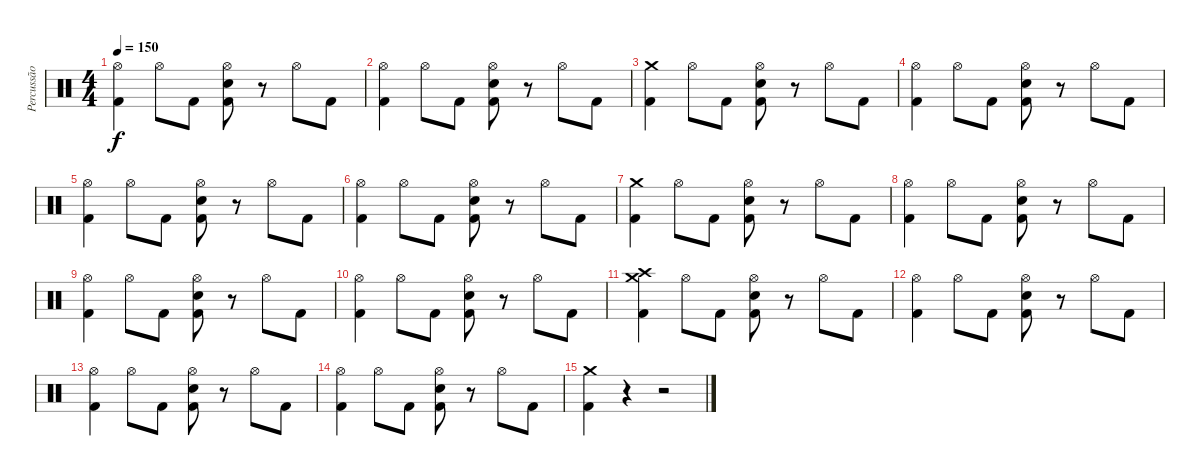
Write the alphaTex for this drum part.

\track ("Percussão" "Percussão") {instrument percussion}
\staff {score}
\articulation defaults
\ts (4 4)
\tempo 150
\clef neutral
\ks c
("Hi-Hat (open)" "Kick (hit) 2").4{dy f} "Hi-Hat (open)".8 "Kick (hit) 2".8 ("Hi-Hat (open)" "Snare (hit) 2" "Kick (hit) 2").8 r.8 "Hi-Hat (open)".8 "Kick (hit) 2".8 |
("Hi-Hat (open)" "Kick (hit) 2").4 "Hi-Hat (open)".8 "Kick (hit) 2".8 ("Hi-Hat (open)" "Snare (hit) 2" "Kick (hit) 2").8 r.8 "Hi-Hat (open)".8 "Kick (hit) 2".8 |
("Crash medium (hit)" "Kick (hit) 2").4 "Hi-Hat (open)".8 "Kick (hit) 2".8 ("Hi-Hat (open)" "Snare (hit) 2" "Kick (hit) 2").8 r.8 "Hi-Hat (open)".8 "Kick (hit) 2".8 |
("Hi-Hat (open)" "Kick (hit) 2").4 "Hi-Hat (open)".8 "Kick (hit) 2".8 ("Hi-Hat (open)" "Snare (hit) 2" "Kick (hit) 2").8 r.8 "Hi-Hat (open)".8 "Kick (hit) 2".8 |
("Hi-Hat (open)" "Kick (hit) 2").4 "Hi-Hat (open)".8 "Kick (hit) 2".8 ("Hi-Hat (open)" "Snare (hit) 2" "Kick (hit) 2").8 r.8 "Hi-Hat (open)".8 "Kick (hit) 2".8 |
("Hi-Hat (open)" "Kick (hit) 2").4 "Hi-Hat (open)".8 "Kick (hit) 2".8 ("Hi-Hat (open)" "Snare (hit) 2" "Kick (hit) 2").8 r.8 "Hi-Hat (open)".8 "Kick (hit) 2".8 |
("Crash medium (hit)" "Kick (hit) 2").4 "Hi-Hat (open)".8 "Kick (hit) 2".8 ("Hi-Hat (open)" "Snare (hit) 2" "Kick (hit) 2").8 r.8 "Hi-Hat (open)".8 "Kick (hit) 2".8 |
("Hi-Hat (open)" "Kick (hit) 2").4 "Hi-Hat (open)".8 "Kick (hit) 2".8 ("Hi-Hat (open)" "Snare (hit) 2" "Kick (hit) 2").8 r.8 "Hi-Hat (open)".8 "Kick (hit) 2".8 |
("Hi-Hat (open)" "Kick (hit) 2").4 "Hi-Hat (open)".8 "Kick (hit) 2".8 ("Hi-Hat (open)" "Snare (hit) 2" "Kick (hit) 2").8 r.8 "Hi-Hat (open)".8 "Kick (hit) 2".8 |
("Hi-Hat (open)" "Kick (hit) 2").4 "Hi-Hat (open)".8 "Kick (hit) 2".8 ("Hi-Hat (open)" "Snare (hit) 2" "Kick (hit) 2").8 r.8 "Hi-Hat (open)".8 "Kick (hit) 2".8 |
("Crash medium (hit)" "Crash high (hit)" "Kick (hit) 2").4{volume 12} "Hi-Hat (open)".8 "Kick (hit) 2".8 ("Hi-Hat (open)" "Snare (hit) 2" "Kick (hit) 2").8 r.8 "Hi-Hat (open)".8 "Kick (hit) 2".8 |
("Hi-Hat (open)" "Kick (hit) 2").4{volume 10} "Hi-Hat (open)".8 "Kick (hit) 2".8 ("Hi-Hat (open)" "Snare (hit) 2" "Kick (hit) 2").8 r.8 "Hi-Hat (open)".8 "Kick (hit) 2".8 |
("Hi-Hat (open)" "Kick (hit) 2").4{volume 8} "Hi-Hat (open)".8 "Kick (hit) 2".8 ("Hi-Hat (open)" "Snare (hit) 2" "Kick (hit) 2").8 r.8 "Hi-Hat (open)".8 "Kick (hit) 2".8 |
("Hi-Hat (open)" "Kick (hit) 2").4{volume 6} "Hi-Hat (open)".8 "Kick (hit) 2".8 ("Hi-Hat (open)" "Snare (hit) 2" "Kick (hit) 2").8 r.8 "Hi-Hat (open)".8 "Kick (hit) 2".8 |
("Crash medium (hit)" "Kick (hit) 2").4 r.4 r.2
